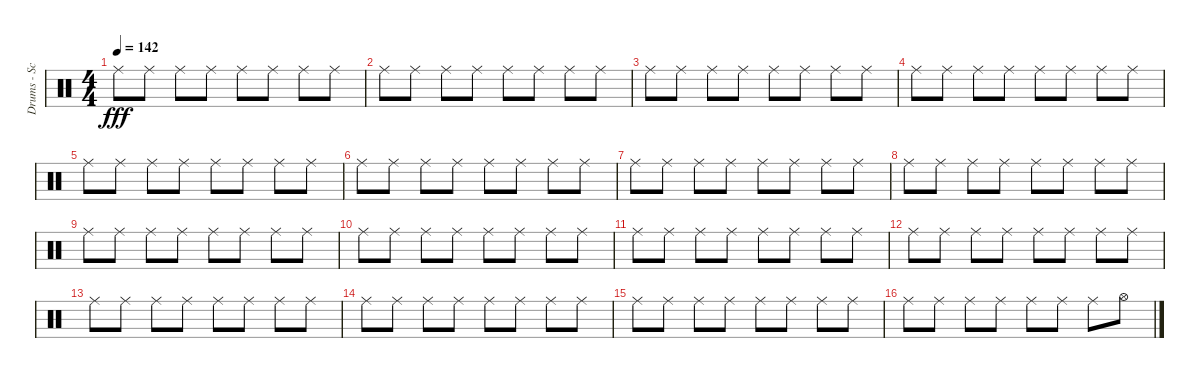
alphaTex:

\track ("Drums - Scott" "Drums - Sc") {instrument percussion}
\staff {score}
\articulation defaults
\ts (4 4)
\tempo 142
\clef neutral
\ks c "Ride (middle)".8{dy fff} "Ride (middle)".8 "Ride (middle)".8 "Ride (middle)".8 "Ride (middle)".8 "Ride (middle)".8 "Ride (middle)".8 "Ride (middle)".8
|
"Ride (middle)".8 "Ride (middle)".8 "Ride (middle)".8 "Ride (middle)".8 "Ride (middle)".8 "Ride (middle)".8 "Ride (middle)".8 "Ride (middle)".8 |
"Ride (middle)".8 "Ride (middle)".8 "Ride (middle)".8 "Ride (middle)".8 "Ride (middle)".8 "Ride (middle)".8 "Ride (middle)".8 "Ride (middle)".8 |
"Ride (middle)".8 "Ride (middle)".8 "Ride (middle)".8 "Ride (middle)".8 "Ride (middle)".8 "Ride (middle)".8 "Ride (middle)".8 "Ride (middle)".8 |
"Ride (middle)".8 "Ride (middle)".8 "Ride (middle)".8 "Ride (middle)".8 "Ride (middle)".8 "Ride (middle)".8 "Ride (middle)".8 "Ride (middle)".8 |
"Ride (middle)".8 "Ride (middle)".8 "Ride (middle)".8 "Ride (middle)".8 "Ride (middle)".8 "Ride (middle)".8 "Ride (middle)".8 "Ride (middle)".8 |
"Ride (middle)".8 "Ride (middle)".8 "Ride (middle)".8 "Ride (middle)".8 "Ride (middle)".8 "Ride (middle)".8 "Ride (middle)".8 "Ride (middle)".8 |
"Ride (middle)".8 "Ride (middle)".8 "Ride (middle)".8 "Ride (middle)".8 "Ride (middle)".8 "Ride (middle)".8 "Ride (middle)".8 "Ride (middle)".8 |
"Ride (middle)".8 "Ride (middle)".8 "Ride (middle)".8 "Ride (middle)".8 "Ride (middle)".8 "Ride (middle)".8 "Ride (middle)".8 "Ride (middle)".8 |
"Ride (middle)".8 "Ride (middle)".8 "Ride (middle)".8 "Ride (middle)".8 "Ride (middle)".8 "Ride (middle)".8 "Ride (middle)".8 "Ride (middle)".8 |
"Ride (middle)".8 "Ride (middle)".8 "Ride (middle)".8 "Ride (middle)".8 "Ride (middle)".8 "Ride (middle)".8 "Ride (middle)".8 "Ride (middle)".8 |
"Ride (middle)".8 "Ride (middle)".8 "Ride (middle)".8 "Ride (middle)".8 "Ride (middle)".8 "Ride (middle)".8 "Ride (middle)".8 "Ride (middle)".8 |
"Ride (middle)".8 "Ride (middle)".8 "Ride (middle)".8 "Ride (middle)".8 "Ride (middle)".8 "Ride (middle)".8 "Ride (middle)".8 "Ride (middle)".8 |
"Ride (middle)".8 "Ride (middle)".8 "Ride (middle)".8 "Ride (middle)".8 "Ride (middle)".8 "Ride (middle)".8 "Ride (middle)".8 "Ride (middle)".8 |
"Ride (middle)".8 "Ride (middle)".8 "Ride (middle)".8 "Ride (middle)".8 "Ride (middle)".8 "Ride (middle)".8 "Ride (middle)".8 "Ride (middle)".8 |
"Ride (middle)".8 "Ride (middle)".8 "Ride (middle)".8 "Ride (middle)".8 "Ride (middle)".8 "Ride (middle)".8 "Ride (middle)".8 "Hi-Hat (open)".8
